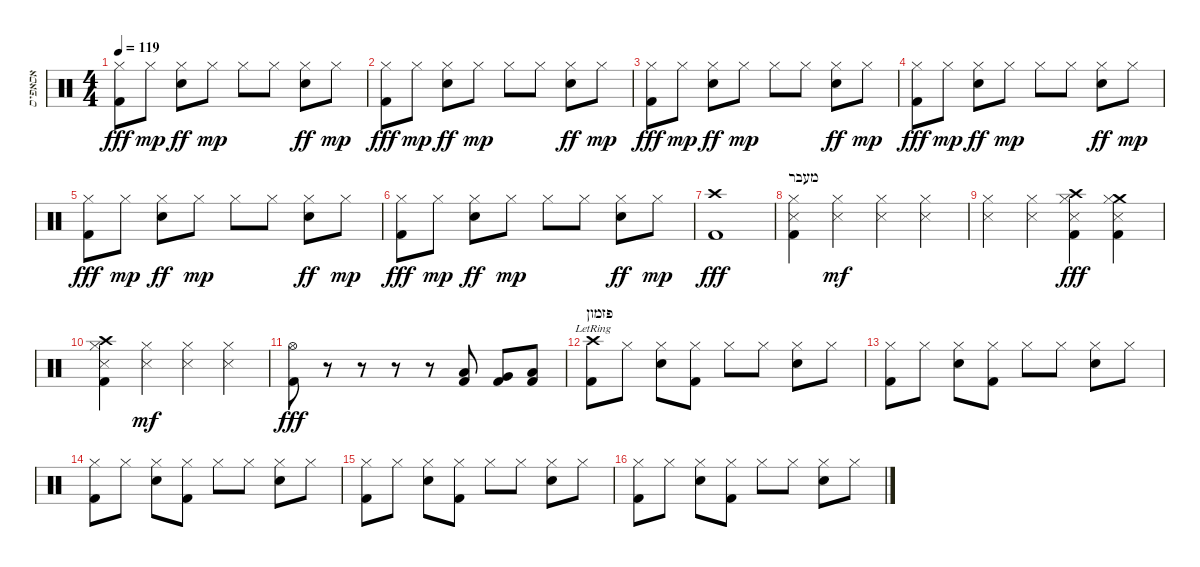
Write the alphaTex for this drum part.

\track ("אסאפיס" "אסאפיס") {instrument percussion}
\staff {score}
\articulation defaults
\ts (4 4)
\tempo 119
\clef neutral
\ks c
("Hi-Hat (closed)" "Kick (hit) 2").8{dy fff} "Hi-Hat (closed)".8{dy mp} ("Hi-Hat (closed)" "Snare (hit) 2").8{dy ff} "Hi-Hat (closed)".8{dy mp} "Hi-Hat (closed)".8 "Hi-Hat (closed)".8 ("Hi-Hat (closed)" "Snare (hit) 2").8{dy ff} "Hi-Hat (closed)".8{dy mp} |
("Hi-Hat (closed)" "Kick (hit) 2").8{dy fff} "Hi-Hat (closed)".8{dy mp} ("Hi-Hat (closed)" "Snare (hit) 2").8{dy ff} "Hi-Hat (closed)".8{dy mp} "Hi-Hat (closed)".8 "Hi-Hat (closed)".8 ("Hi-Hat (closed)" "Snare (hit) 2").8{dy ff} "Hi-Hat (closed)".8{dy mp} |
("Hi-Hat (closed)" "Kick (hit) 2").8{dy fff} "Hi-Hat (closed)".8{dy mp} ("Hi-Hat (closed)" "Snare (hit) 2").8{dy ff} "Hi-Hat (closed)".8{dy mp} "Hi-Hat (closed)".8 "Hi-Hat (closed)".8 ("Hi-Hat (closed)" "Snare (hit) 2").8{dy ff} "Hi-Hat (closed)".8{dy mp} |
("Hi-Hat (closed)" "Kick (hit) 2").8{dy fff} "Hi-Hat (closed)".8{dy mp} ("Hi-Hat (closed)" "Snare (hit) 2").8{dy ff} "Hi-Hat (closed)".8{dy mp} "Hi-Hat (closed)".8 "Hi-Hat (closed)".8 ("Hi-Hat (closed)" "Snare (hit) 2").8{dy ff} "Hi-Hat (closed)".8{dy mp} |
("Hi-Hat (closed)" "Kick (hit) 2").8{dy fff} "Hi-Hat (closed)".8{dy mp} ("Hi-Hat (closed)" "Snare (hit) 2").8{dy ff} "Hi-Hat (closed)".8{dy mp} "Hi-Hat (closed)".8 "Hi-Hat (closed)".8 ("Hi-Hat (closed)" "Snare (hit) 2").8{dy ff} "Hi-Hat (closed)".8{dy mp} |
("Hi-Hat (closed)" "Kick (hit) 2").8{dy fff} "Hi-Hat (closed)".8{dy mp} ("Hi-Hat (closed)" "Snare (hit) 2").8{dy ff} "Hi-Hat (closed)".8{dy mp} "Hi-Hat (closed)".8 "Hi-Hat (closed)".8 ("Hi-Hat (closed)" "Snare (hit) 2").8{dy ff} "Hi-Hat (closed)".8{dy mp} |
("Crash high (hit)" "Kick (hit) 2").1{dy fff} |
\section ("" "מעבר")
("Hi-Hat (closed)" "Snare (side stick) 3" "Kick (hit) 2").4 ("Hi-Hat (closed)" "Snare (side stick) 3").4{dy mf} ("Hi-Hat (closed)" "Snare (side stick) 3").4 ("Hi-Hat (closed)" "Snare (side stick) 3").4 |
("Hi-Hat (closed)" "Snare (side stick) 3").4 ("Hi-Hat (closed)" "Snare (side stick) 3").4 ("Crash high (hit)" "Hi-Hat (closed)" "Snare (side stick) 3" "Kick (hit) 2").4{dy fff} ("Crash medium (hit)" "Hi-Hat (closed)" "Snare (side stick) 3" "Kick (hit) 2").4 |
("Crash high (hit)" "Hi-Hat (closed)" "Snare (side stick) 3" "Kick (hit) 2").4 ("Hi-Hat (closed)" "Snare (side stick) 3").4{dy mf} ("Hi-Hat (closed)" "Snare (side stick) 3").4 ("Hi-Hat (closed)" "Snare (side stick) 3").4 |
("Hi-Hat (open)" "Kick (hit) 2").8{dy fff} r.8 r.8 r.8 r.8 ("Low Tom (hit)" "Kick (hit) 2").8 ("Very Low Tom (hit)" "Kick (hit) 2").8 ("Low Floor Tom (hit)" "Kick (hit) 2").8 |
\section ("" "פזמון")
("Crash high (hit)"{lr} "Kick (hit) 2").8 "Hi-Hat (closed)".8 ("Hi-Hat (closed)" "Snare (hit) 2").8 ("Hi-Hat (closed)" "Kick (hit) 2").8 "Hi-Hat (closed)".8 "Hi-Hat (closed)".8 ("Hi-Hat (closed)" "Snare (hit) 2").8 "Hi-Hat (closed)".8 |
("Hi-Hat (closed)" "Kick (hit) 2").8 "Hi-Hat (closed)".8 ("Hi-Hat (closed)" "Snare (hit) 2").8 ("Hi-Hat (closed)" "Kick (hit) 2").8 "Hi-Hat (closed)".8 "Hi-Hat (closed)".8 ("Hi-Hat (closed)" "Snare (hit) 2").8 "Hi-Hat (closed)".8 |
("Hi-Hat (closed)" "Kick (hit) 2").8 "Hi-Hat (closed)".8 ("Hi-Hat (closed)" "Snare (hit) 2").8 ("Hi-Hat (closed)" "Kick (hit) 2").8 "Hi-Hat (closed)".8 "Hi-Hat (closed)".8 ("Hi-Hat (closed)" "Snare (hit) 2").8 "Hi-Hat (closed)".8 |
("Hi-Hat (closed)" "Kick (hit) 2").8 "Hi-Hat (closed)".8 ("Hi-Hat (closed)" "Snare (hit) 2").8 ("Hi-Hat (closed)" "Kick (hit) 2").8 "Hi-Hat (closed)".8 "Hi-Hat (closed)".8 ("Hi-Hat (closed)" "Snare (hit) 2").8 "Hi-Hat (closed)".8 |
("Hi-Hat (closed)" "Kick (hit) 2").8 "Hi-Hat (closed)".8 ("Hi-Hat (closed)" "Snare (hit) 2").8 ("Hi-Hat (closed)" "Kick (hit) 2").8 "Hi-Hat (closed)".8 "Hi-Hat (closed)".8 ("Hi-Hat (closed)" "Snare (hit) 2").8 "Hi-Hat (closed)".8
